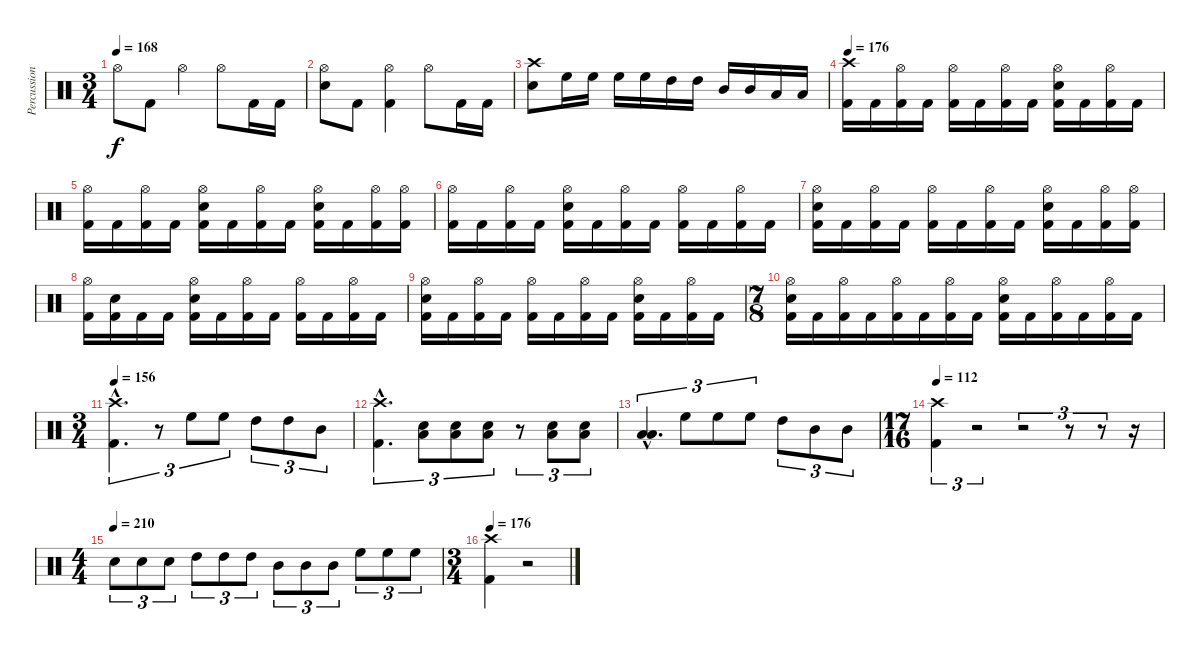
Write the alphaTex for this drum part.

\track ("Percussion" "Percussion") {instrument percussion}
\staff {score}
\articulation defaults
\ts (3 4)
\tempo 168
\clef neutral
\ks c "Hi-Hat (open)".8{dy f} "Kick (hit) 2".8 "Hi-Hat (open)".4 "Hi-Hat (open)".8 "Kick (hit) 2".16 "Kick (hit) 2".16
|
("Hi-Hat (open)" "Electric Snare (hit)").8 "Kick (hit) 2".8 ("Hi-Hat (open)" "Kick (hit) 2").4 "Hi-Hat (open)".8 "Kick (hit) 2".16 "Kick (hit) 2".16 |
("Crash high (hit)" "Electric Snare (hit)").8 "High Floor Tom (hit)".16 "High Floor Tom (hit)".16 "High Floor Tom (hit)".16 "High Floor Tom (hit)".16 "High Tom (hit)".16 "High Tom (hit)".16 "Mid Tom (hit)".16 "Mid Tom (hit)".16 "Low Tom (hit)".16 "Low Tom (hit)".16 |
\tempo 176
("Crash high (hit)" "Kick (hit) 2").16 "Kick (hit) 2".16 ("Hi-Hat (open)" "Kick (hit) 2").16 "Kick (hit) 2".16 ("Hi-Hat (open)" "Kick (hit) 2").16 "Kick (hit) 2".16 ("Hi-Hat (open)" "Kick (hit) 2").16 "Kick (hit) 2".16 ("Hi-Hat (open)" "Electric Snare (hit)" "Kick (hit) 2").16 "Kick (hit) 2".16 ("Hi-Hat (open)" "Kick (hit) 2").16 "Kick (hit) 2".16 |
("Hi-Hat (open)" "Kick (hit) 2").16 "Kick (hit) 2".16 ("Hi-Hat (open)" "Kick (hit) 2").16 "Kick (hit) 2".16 ("Hi-Hat (open)" "Electric Snare (hit)" "Kick (hit) 2").16 "Kick (hit) 2".16 ("Hi-Hat (open)" "Kick (hit) 2").16 "Kick (hit) 2".16 ("Hi-Hat (open)" "Electric Snare (hit)" "Kick (hit) 2").16 "Kick (hit) 2".16 ("Hi-Hat (open)" "Kick (hit) 2").16 ("Hi-Hat (open)" "Kick (hit) 2").16 |
("Hi-Hat (open)" "Kick (hit) 2").16 "Kick (hit) 2".16 ("Hi-Hat (open)" "Kick (hit) 2").16 "Kick (hit) 2".16 ("Hi-Hat (open)" "Electric Snare (hit)" "Kick (hit) 2").16 "Kick (hit) 2".16 ("Hi-Hat (open)" "Kick (hit) 2").16 "Kick (hit) 2".16 ("Hi-Hat (open)" "Kick (hit) 2").16 "Kick (hit) 2".16 ("Hi-Hat (open)" "Kick (hit) 2").16 "Kick (hit) 2".16 |
("Hi-Hat (open)" "Electric Snare (hit)" "Kick (hit) 2").16 "Kick (hit) 2".16 ("Hi-Hat (open)" "Kick (hit) 2").16 "Kick (hit) 2".16 ("Hi-Hat (open)" "Kick (hit) 2").16 "Kick (hit) 2".16 ("Hi-Hat (open)" "Kick (hit) 2").16 "Kick (hit) 2".16 ("Hi-Hat (open)" "Electric Snare (hit)" "Kick (hit) 2").16 "Kick (hit) 2".16 ("Hi-Hat (open)" "Kick (hit) 2").16 ("Hi-Hat (open)" "Kick (hit) 2").16 |
("Hi-Hat (open)" "Kick (hit) 2").16 ("Electric Snare (hit)" "Kick (hit) 2").16 "Kick (hit) 2".16 "Kick (hit) 2".16 ("Hi-Hat (open)" "Electric Snare (hit)" "Kick (hit) 2").16 "Kick (hit) 2".16 ("Hi-Hat (open)" "Kick (hit) 2").16 "Kick (hit) 2".16 ("Hi-Hat (open)" "Kick (hit) 2").16 "Kick (hit) 2".16 ("Hi-Hat (open)" "Kick (hit) 2").16 "Kick (hit) 2".16 |
("Hi-Hat (open)" "Electric Snare (hit)" "Kick (hit) 2").16 "Kick (hit) 2".16 ("Hi-Hat (open)" "Kick (hit) 2").16 "Kick (hit) 2".16 ("Hi-Hat (open)" "Kick (hit) 2").16 "Kick (hit) 2".16 ("Hi-Hat (open)" "Kick (hit) 2").16 "Kick (hit) 2".16 ("Hi-Hat (open)" "Electric Snare (hit)" "Kick (hit) 2").16 "Kick (hit) 2".16 ("Hi-Hat (open)" "Kick (hit) 2").16 "Kick (hit) 2".16 |
\ts (7 8)
("Hi-Hat (open)" "Electric Snare (hit)" "Kick (hit) 2").16 "Kick (hit) 2".16 ("Hi-Hat (open)" "Kick (hit) 2").16 "Kick (hit) 2".16 ("Hi-Hat (open)" "Kick (hit) 2").16 "Kick (hit) 2".16 ("Hi-Hat (open)" "Kick (hit) 2").16 "Kick (hit) 2".16 ("Hi-Hat (open)" "Electric Snare (hit)" "Kick (hit) 2").16 "Kick (hit) 2".16 ("Hi-Hat (open)" "Kick (hit) 2").16 "Kick (hit) 2".16 ("Hi-Hat (open)" "Kick (hit) 2").16 "Kick (hit) 2".16 |
\ts (3 4)
\tempo 156
("Crash high (hit)"{hac} "Kick (hit) 2"{hac}).4{d tu (3 2)} r.8{tu (3 2)} "High Floor Tom (hit)".8{tu (3 2)} "High Floor Tom (hit)".8{tu (3 2)} "High Tom (hit)".8{tu (3 2)} "High Tom (hit)".8{tu (3 2)} "Mid Tom (hit)".8{tu (3 2)} |
("Crash high (hit)"{hac} "Kick (hit) 2"{hac}).4{d tu (3 2)} ("Electric Snare (hit)" "Low Tom (hit)").8{tu (3 2)} ("Electric Snare (hit)" "Low Tom (hit)").8{tu (3 2)} ("Electric Snare (hit)" "Low Tom (hit)").8{tu (3 2)} r.8{tu (3 2)} ("Electric Snare (hit)" "Low Floor Tom (hit)").8{tu (3 2)} ("Electric Snare (hit)" "Low Floor Tom (hit)").8{tu (3 2)} |
("Low Tom (hit)"{hac} "Low Floor Tom (hit)"{hac}).4{d tu (3 2)} "High Floor Tom (hit)".8{tu (3 2)} "High Floor Tom (hit)".8{tu (3 2)} "High Floor Tom (hit)".8{tu (3 2)} "High Tom (hit)".8{tu (3 2)} "Mid Tom (hit)".8{tu (3 2)} "Mid Tom (hit)".8{tu (3 2)} |
\ts (17 16)
\tempo 112
("Crash high (hit)" "Kick (hit) 2").4{tu (3 2)} r.2{tu (3 2)} r.2{tu (3 2)} r.8{tu (3 2)} r.8{tu (3 2)} r.16 |
\ts (4 4)
\tempo (210)
"Electric Snare (hit)".8{tu (3 2)} "Electric Snare (hit)".8{tu (3 2)} "Electric Snare (hit)".8{tu (3 2)} "High Tom (hit)".8{tu (3 2)} "High Tom (hit)".8{tu (3 2)} "High Tom (hit)".8{tu (3 2)} "Mid Tom (hit)".8{tu (3 2)} "Mid Tom (hit)".8{tu (3 2)} "Mid Tom (hit)".8{tu (3 2)} "High Floor Tom (hit)".8{tu (3 2)} "High Floor Tom (hit)".8{tu (3 2)} "High Floor Tom (hit)".8{tu (3 2)} |
\ts (3 4)
\tempo 176
("Crash high (hit)" "Kick (hit) 2").4 r.2
